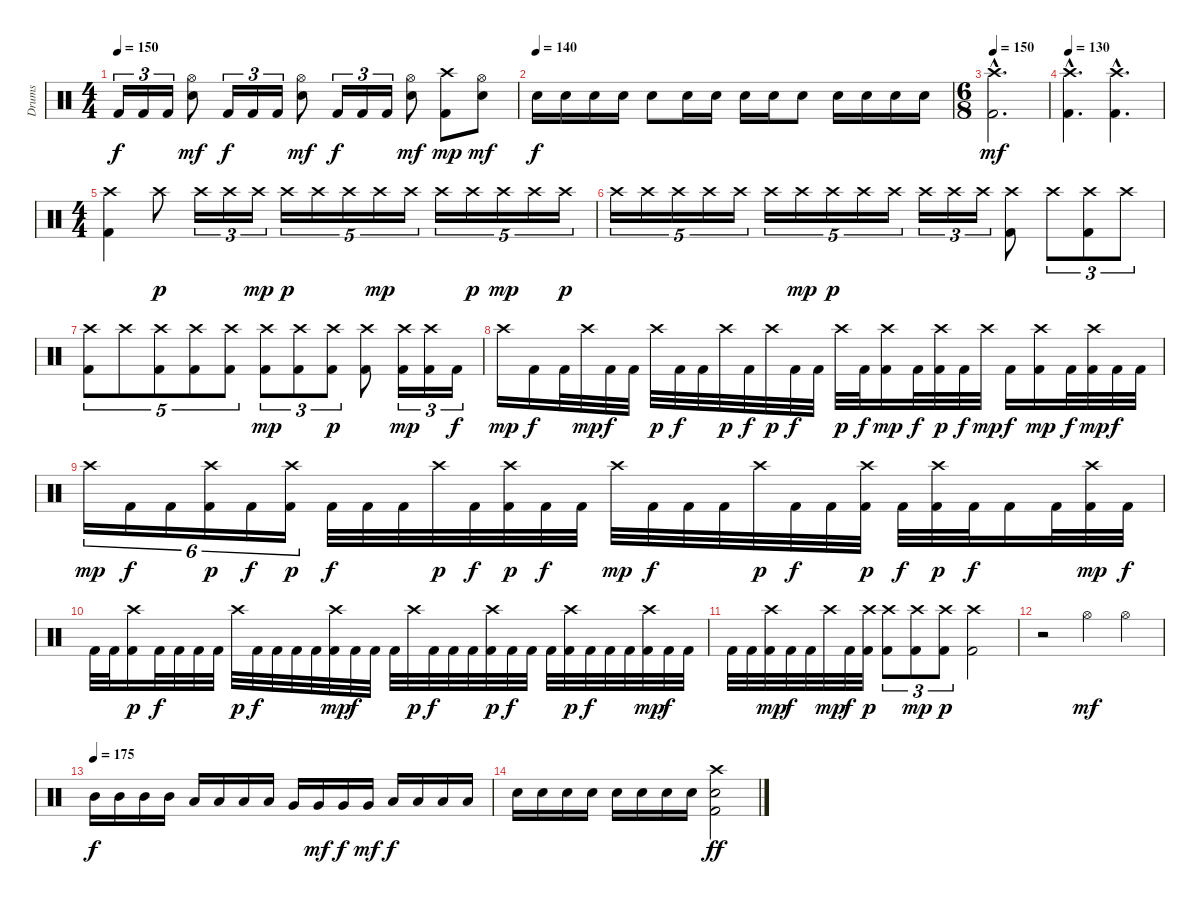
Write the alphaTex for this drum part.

\track ("Drums" "Drums") {instrument percussion}
\staff {score}
\articulation defaults
\ts (4 4)
\tempo 150
\clef neutral
\ks c "Kick (hit) 2".16{tu (3 2) dy f} "Kick (hit) 2".16{tu (3 2)} "Kick (hit) 2".16{tu (3 2)}
("Hi-Hat (open)" "Electric Snare (hit)").8{dy mf} "Kick (hit) 2".16{tu (3 2) dy f} "Kick (hit) 2".16{tu (3 2)} "Kick (hit) 2".16{tu (3 2)} ("Hi-Hat (open)" "Electric Snare (hit)").8{dy mf} "Kick (hit) 2".16{tu (3 2) dy f} "Kick (hit) 2".16{tu (3 2)} "Kick (hit) 2".16{tu (3 2)} ("Hi-Hat (open)" "Electric Snare (hit)").8{dy mf} ("Crash high (hit)" "Kick (hit) 2").8{dy mp} ("Hi-Hat (open)" "Electric Snare (hit)").8{dy mf} |
\tempo (140)
"Electric Snare (hit)".16{dy f} "Electric Snare (hit)".16 "Electric Snare (hit)".16 "Electric Snare (hit)".16 "Electric Snare (hit)".8 "Electric Snare (hit)".16 "Electric Snare (hit)".16 "Electric Snare (hit)".16 "Electric Snare (hit)".16 "Electric Snare (hit)".8 "Electric Snare (hit)".16 "Electric Snare (hit)".16 "Electric Snare (hit)".16 "Electric Snare (hit)".16 |
\ts (6 8)
\tempo 150
("Crash high (hit)"{hac} "Kick (hit) 2"{hac}).2{d dy mf} |
\tempo 130
("Crash high (hit)"{hac} "Kick (hit) 2"{hac}).4{d} ("Crash high (hit)"{hac} "Kick (hit) 2"{hac}).4{d} |
\ts (4 4)
("Crash high (hit)" "Kick (hit) 2").4 "Crash high (hit)".8{dy p} "Crash high (hit)".16{tu (3 2)} "Crash high (hit)".16{tu (3 2)} "Crash high (hit)".16{tu (3 2) dy mp} "Crash high (hit)".16{tu (5 4) dy p} "Crash high (hit)".16{tu (5 4)} "Crash high (hit)".16{tu (5 4)} "Crash high (hit)".16{tu (5 4) dy mp} "Crash high (hit)".16{tu (5 4)} "Crash high (hit)".16{tu (5 4)} "Crash high (hit)".16{tu (5 4) dy p} "Crash high (hit)".16{tu (5 4) dy mp} "Crash high (hit)".16{tu (5 4)} "Crash high (hit)".16{tu (5 4) dy p} |
"Crash high (hit)".16{tu (5 4)} "Crash high (hit)".16{tu (5 4)} "Crash high (hit)".16{tu (5 4)} "Crash high (hit)".16{tu (5 4)} "Crash high (hit)".16{tu (5 4)} "Crash high (hit)".16{tu (5 4)} "Crash high (hit)".16{tu (5 4) dy mp} "Crash high (hit)".16{tu (5 4) dy p} "Crash high (hit)".16{tu (5 4)} "Crash high (hit)".16{tu (5 4)} "Crash high (hit)".16{tu (3 2)} "Crash high (hit)".16{tu (3 2)} "Crash high (hit)".16{tu (3 2)} ("Crash high (hit)" "Kick (hit) 2").8 "Crash high (hit)".8{tu (3 2)} ("Crash high (hit)" "Kick (hit) 2").8{tu (3 2)} "Crash high (hit)".8{tu (3 2)} |
("Crash high (hit)" "Kick (hit) 2").8{tu (5 4)} "Crash high (hit)".8{tu (5 4)} ("Crash high (hit)" "Kick (hit) 2").8{tu (5 4)} ("Crash high (hit)" "Kick (hit) 2").8{tu (5 4)} ("Crash high (hit)" "Kick (hit) 2").8{tu (5 4)} ("Crash high (hit)" "Kick (hit) 2").8{tu (3 2) dy mp} ("Crash high (hit)" "Kick (hit) 2").8{tu (3 2)} ("Crash high (hit)" "Kick (hit) 2").8{tu (3 2) dy p} ("Crash high (hit)" "Kick (hit) 2").8 ("Crash high (hit)" "Kick (hit) 2").16{tu (3 2) dy mp} ("Crash high (hit)" "Kick (hit) 2").16{tu (3 2)} "Kick (hit) 2".16{tu (3 2) dy f} |
"Crash high (hit)".16{dy mp} "Kick (hit) 2".16{dy f} "Kick (hit) 2".32 "Crash high (hit)".32{dy mp} "Kick (hit) 2".32{dy f} "Kick (hit) 2".32 "Crash high (hit)".32{dy p} "Kick (hit) 2".32{dy f} "Kick (hit) 2".32 "Crash high (hit)".32{dy p} "Kick (hit) 2".32{dy f} "Crash high (hit)".32{dy p} "Kick (hit) 2".32{dy f} "Kick (hit) 2".32 "Crash high (hit)".32{dy p} "Kick (hit) 2".32{dy f} ("Crash high (hit)" "Kick (hit) 2").16{dy mp} "Kick (hit) 2".32{dy f} ("Crash high (hit)" "Kick (hit) 2").32{dy p} "Kick (hit) 2".32{dy f} "Crash high (hit)".32{dy mp} "Kick (hit) 2".16{dy f} ("Crash high (hit)" "Kick (hit) 2").16{dy mp} "Kick (hit) 2".32{dy f} ("Kick (hit) 2" "Crash high (hit)").32{dy mp} "Kick (hit) 2".32{dy f} "Kick (hit) 2".32 |
"Crash high (hit)".16{tu (6 4) dy mp} "Kick (hit) 2".16{tu (6 4) dy f} "Kick (hit) 2".16{tu (6 4)} ("Kick (hit) 2" "Crash high (hit)").16{tu (6 4) dy p} "Kick (hit) 2".16{tu (6 4) dy f} ("Kick (hit) 2" "Crash high (hit)").16{tu (6 4) dy p} "Kick (hit) 2".32{dy f} "Kick (hit) 2".32 "Kick (hit) 2".32 "Crash high (hit)".32{dy p} "Kick (hit) 2".32{dy f} ("Kick (hit) 2" "Crash high (hit)").32{dy p} "Kick (hit) 2".32{dy f} "Kick (hit) 2".32 "Crash high (hit)".32{dy mp} "Kick (hit) 2".32{dy f} "Kick (hit) 2".32 "Kick (hit) 2".32 "Crash high (hit)".32{dy p} "Kick (hit) 2".32{dy f} "Kick (hit) 2".32 ("Crash high (hit)" "Kick (hit) 2").32{dy p} "Kick (hit) 2".32{dy f} ("Kick (hit) 2" "Crash high (hit)").32{dy p} "Kick (hit) 2".32{dy f} "Kick (hit) 2".16 "Kick (hit) 2".32 ("Kick (hit) 2" "Crash high (hit)").32{dy mp} "Kick (hit) 2".32{dy f} |
"Kick (hit) 2".32 "Kick (hit) 2".32 ("Kick (hit) 2" "Crash high (hit)").16{dy p} "Kick (hit) 2".32{dy f} "Kick (hit) 2".32 "Kick (hit) 2".32 "Kick (hit) 2".32 "Crash high (hit)".32{dy p} "Kick (hit) 2".32{dy f} "Kick (hit) 2".32 "Kick (hit) 2".32 "Kick (hit) 2".32 ("Kick (hit) 2" "Crash high (hit)").32{dy mp} "Kick (hit) 2".32{dy f} "Kick (hit) 2".32 "Kick (hit) 2".32 "Crash high (hit)".32{dy p} "Kick (hit) 2".32{dy f} "Kick (hit) 2".32 "Kick (hit) 2".32 ("Kick (hit) 2" "Crash high (hit)").32{dy p} "Kick (hit) 2".32{dy f} "Kick (hit) 2".32 "Kick (hit) 2".32 ("Kick (hit) 2" "Crash high (hit)").32{dy p} "Kick (hit) 2".32{dy f} "Kick (hit) 2".32 "Kick (hit) 2".32 ("Crash high (hit)" "Kick (hit) 2").32{dy mp} "Kick (hit) 2".32{dy f} "Kick (hit) 2".32 |
"Kick (hit) 2".32 "Kick (hit) 2".32 ("Kick (hit) 2" "Crash high (hit)").32{dy mp} "Kick (hit) 2".32{dy f} "Kick (hit) 2".32 "Crash high (hit)".32{dy mp} "Kick (hit) 2".32{dy f} ("Crash high (hit)" "Kick (hit) 2").32{dy p} ("Crash high (hit)" "Kick (hit) 2").8{tu (3 2)} ("Crash high (hit)" "Kick (hit) 2").8{tu (3 2) dy mp} ("Crash high (hit)" "Kick (hit) 2").8{tu (3 2) dy p} ("Crash high (hit)" "Kick (hit) 2").2 |
r.2 "Hi-Hat (open)".4{dy mf} "Hi-Hat (open)".4 |
\tempo (175)
"Mid Tom (hit)".16{dy f} "Mid Tom (hit)".16 "Mid Tom (hit)".16 "Mid Tom (hit)".16 "Low Tom (hit)".16 "Low Tom (hit)".16 "Low Tom (hit)".16 "Low Tom (hit)".16 "Very Low Tom (hit)".16 "Very Low Tom (hit)".16{dy mf} "Very Low Tom (hit)".16{dy f} "Very Low Tom (hit)".16{dy mf} "Low Floor Tom (hit)".16{dy f} "Low Floor Tom (hit)".16 "Low Floor Tom (hit)".16 "Low Floor Tom (hit)".16 |
"Electric Snare (hit)".16 "Electric Snare (hit)".16 "Electric Snare (hit)".16 "Electric Snare (hit)".16 "Electric Snare (hit)".16 "Electric Snare (hit)".16 "Electric Snare (hit)".16 "Electric Snare (hit)".16 ("Crash high (hit)" "Electric Snare (hit)" "Kick (hit) 2").2{dy ff}
